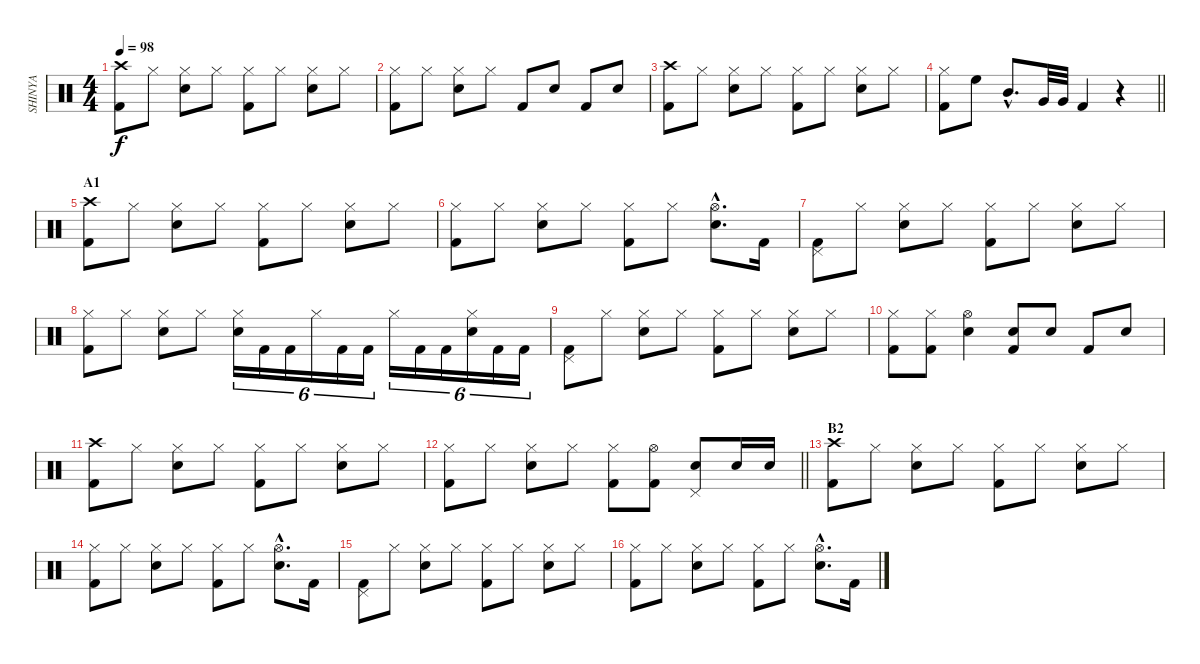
\track ("SHINYA" "SHINYA") {instrument percussion}
\staff {score}
\articulation defaults
\ts (4 4)
\tempo 98
\clef neutral
\ks c
("Crash high (hit)" "Kick (hit) 2").8{dy f} "Hi-Hat (closed)".8 ("Hi-Hat (closed)" "Snare (hit) 2").8 "Hi-Hat (closed)".8 ("Hi-Hat (closed)" "Kick (hit) 2").8 "Hi-Hat (closed)".8 ("Hi-Hat (closed)" "Snare (hit) 2").8 "Hi-Hat (closed)".8 |
("Hi-Hat (closed)" "Kick (hit) 2").8 "Hi-Hat (closed)".8 ("Hi-Hat (closed)" "Snare (hit) 2").8 "Hi-Hat (closed)".8 "Kick (hit) 2".8 "Snare (hit) 2".8 "Kick (hit) 2".8 "Snare (hit) 2".8 |
("Crash high (hit)" "Kick (hit) 2").8 "Hi-Hat (closed)".8 ("Hi-Hat (closed)" "Snare (hit) 2").8 "Hi-Hat (closed)".8 ("Hi-Hat (closed)" "Kick (hit) 2").8 "Hi-Hat (closed)".8 ("Hi-Hat (closed)" "Snare (hit) 2").8 "Hi-Hat (closed)".8 |
\barLineRight lightlight
("Hi-Hat (closed)" "Kick (hit) 2").8 "High Floor Tom (hit)".8 "Mid Tom (hit)"{hac}.8{d} "Very Low Tom (hit)".32 "Very Low Tom (hit)".32 "Kick (hit) 2".4 r.4 |
\section ("" "A1")
("Crash high (hit)" "Kick (hit) 2").8 "Hi-Hat (closed)".8 ("Hi-Hat (closed)" "Snare (hit) 2").8 "Hi-Hat (closed)".8 ("Hi-Hat (closed)" "Kick (hit) 2").8 "Hi-Hat (closed)".8 ("Hi-Hat (closed)" "Snare (hit) 2").8 "Hi-Hat (closed)".8 |
("Hi-Hat (closed)" "Kick (hit) 2").8 "Hi-Hat (closed)".8 ("Hi-Hat (closed)" "Snare (hit) 2").8 "Hi-Hat (closed)".8 ("Hi-Hat (closed)" "Kick (hit) 2").8 "Hi-Hat (closed)".8 ("Hi-Hat (open)"{hac} "Snare (hit) 2"{hac}).8{d} "Kick (hit) 2".16 |
("Pedal Hi-Hat (hit)" "Kick (hit) 2").8 "Hi-Hat (closed)".8 ("Hi-Hat (closed)" "Snare (hit) 2").8 "Hi-Hat (closed)".8 ("Hi-Hat (closed)" "Kick (hit) 2").8 "Hi-Hat (closed)".8 ("Hi-Hat (closed)" "Snare (hit) 2").8 "Hi-Hat (closed)".8 |
("Hi-Hat (closed)" "Kick (hit) 2").8 "Hi-Hat (closed)".8 ("Hi-Hat (closed)" "Snare (hit) 2").8 "Hi-Hat (closed)".8 ("Hi-Hat (closed)" "Snare (hit) 2").16{tu (6 4)} "Kick (hit) 2".16{tu (6 4)} "Kick (hit) 2".16{tu (6 4)} "Hi-Hat (closed)".16{tu (6 4)} "Kick (hit) 2".16{tu (6 4)} "Kick (hit) 2".16{tu (6 4)} "Hi-Hat (closed)".16{tu (6 4)} "Kick (hit) 2".16{tu (6 4)} "Kick (hit) 2".16{tu (6 4)} ("Hi-Hat (closed)" "Snare (hit) 2").16{tu (6 4)} "Kick (hit) 2".16{tu (6 4)} "Kick (hit) 2".16{tu (6 4)} |
("Pedal Hi-Hat (hit)" "Kick (hit) 2").8 "Hi-Hat (closed)".8 ("Hi-Hat (closed)" "Snare (hit) 2").8 "Hi-Hat (closed)".8 ("Hi-Hat (closed)" "Kick (hit) 2").8 "Hi-Hat (closed)".8 ("Hi-Hat (closed)" "Snare (hit) 2").8 "Hi-Hat (closed)".8 |
("Hi-Hat (closed)" "Kick (hit) 2").8 ("Hi-Hat (closed)" "Kick (hit) 2").8 ("Hi-Hat (open)" "Snare (hit) 2").4 ("Snare (hit) 2" "Kick (hit) 2").8 "Snare (hit) 2".8 "Kick (hit) 2".8 "Snare (hit) 2".8 |
("Crash high (hit)" "Kick (hit) 2").8 "Hi-Hat (closed)".8 ("Hi-Hat (closed)" "Snare (hit) 2").8 "Hi-Hat (closed)".8 ("Hi-Hat (closed)" "Kick (hit) 2").8 "Hi-Hat (closed)".8 ("Hi-Hat (closed)" "Snare (hit) 2").8 "Hi-Hat (closed)".8 |
\barLineRight lightlight
("Hi-Hat (closed)" "Kick (hit) 2").8 "Hi-Hat (closed)".8 ("Hi-Hat (closed)" "Snare (hit) 2").8 "Hi-Hat (closed)".8 ("Hi-Hat (closed)" "Kick (hit) 2").8 ("Hi-Hat (open)" "Kick (hit) 2").8 ("Pedal Hi-Hat (hit)" "Snare (hit) 2").8 "Snare (hit) 2".16 "Snare (hit) 2".16 |
\section ("" "B2")
("Crash high (hit)" "Kick (hit) 2").8 "Hi-Hat (closed)".8 ("Hi-Hat (closed)" "Snare (hit) 2").8 "Hi-Hat (closed)".8 ("Hi-Hat (closed)" "Kick (hit) 2").8 "Hi-Hat (closed)".8 ("Hi-Hat (closed)" "Snare (hit) 2").8 "Hi-Hat (closed)".8 |
("Hi-Hat (closed)" "Kick (hit) 2").8 "Hi-Hat (closed)".8 ("Hi-Hat (closed)" "Snare (hit) 2").8 "Hi-Hat (closed)".8 ("Hi-Hat (closed)" "Kick (hit) 2").8 "Hi-Hat (closed)".8 ("Hi-Hat (open)"{hac} "Snare (hit) 2"{hac}).8{d} "Kick (hit) 2".16 |
("Pedal Hi-Hat (hit)" "Kick (hit) 2").8 "Hi-Hat (closed)".8 ("Hi-Hat (closed)" "Snare (hit) 2").8 "Hi-Hat (closed)".8 ("Hi-Hat (closed)" "Kick (hit) 2").8 "Hi-Hat (closed)".8 ("Hi-Hat (closed)" "Snare (hit) 2").8 "Hi-Hat (closed)".8 |
("Hi-Hat (closed)" "Kick (hit) 2").8 "Hi-Hat (closed)".8 ("Hi-Hat (closed)" "Snare (hit) 2").8 "Hi-Hat (closed)".8 ("Hi-Hat (closed)" "Kick (hit) 2").8 "Hi-Hat (closed)".8 ("Hi-Hat (open)"{hac} "Snare (hit) 2"{hac}).8{d} "Kick (hit) 2".16
